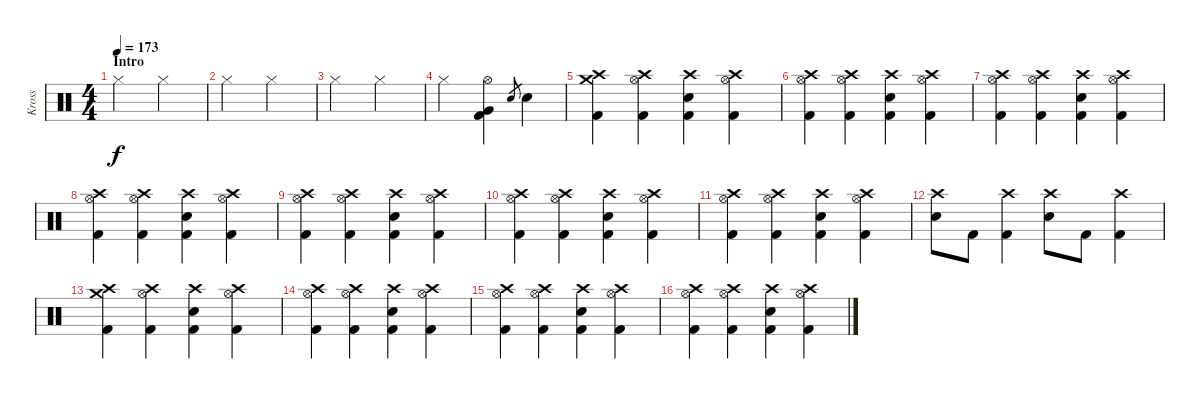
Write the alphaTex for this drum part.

\track ("Kross" "Kross") {instrument percussion}
\staff {score}
\articulation defaults
\ts (4 4)
\section ("" "Intro")
\tempo 173
\clef neutral
\ks c "Hi-Hat (closed)".2{dy f} "Hi-Hat (closed)".2
|
"Hi-Hat (closed)".2 "Hi-Hat (closed)".2 |
"Hi-Hat (closed)".2 "Hi-Hat (closed)".2 |
"Hi-Hat (closed)".2 ("Hi-Hat (open)" "Very Low Tom (hit)" "Kick (hit) 2").4 "Electric Snare (hit)".8{gr} "Electric Snare (hit)".4 |
("Crash medium (hit)" "Crash high (hit)" "Kick (hit) 2").4 ("Crash high (hit)" "Hi-Hat (open)" "Kick (hit) 2").4 ("Crash high (hit)" "Electric Snare (hit)" "Kick (hit) 2").4 ("Crash high (hit)" "Hi-Hat (open)" "Kick (hit) 2").4 |
("Crash high (hit)" "Hi-Hat (open)" "Kick (hit) 2").4 ("Crash high (hit)" "Hi-Hat (open)" "Kick (hit) 2").4 ("Crash high (hit)" "Electric Snare (hit)" "Kick (hit) 2").4 ("Crash high (hit)" "Hi-Hat (open)" "Kick (hit) 2").4 |
("Crash high (hit)" "Hi-Hat (open)" "Kick (hit) 2").4 ("Crash high (hit)" "Hi-Hat (open)" "Kick (hit) 2").4 ("Crash high (hit)" "Electric Snare (hit)" "Kick (hit) 2").4 ("Crash high (hit)" "Hi-Hat (open)" "Kick (hit) 2").4 |
("Crash high (hit)" "Hi-Hat (open)" "Kick (hit) 2").4 ("Crash high (hit)" "Hi-Hat (open)" "Kick (hit) 2").4 ("Crash high (hit)" "Electric Snare (hit)" "Kick (hit) 2").4 ("Crash high (hit)" "Hi-Hat (open)" "Kick (hit) 2").4 |
("Crash high (hit)" "Hi-Hat (open)" "Kick (hit) 2").4 ("Crash high (hit)" "Hi-Hat (open)" "Kick (hit) 2").4 ("Crash high (hit)" "Electric Snare (hit)" "Kick (hit) 2").4 ("Crash high (hit)" "Hi-Hat (open)" "Kick (hit) 2").4 |
("Crash high (hit)" "Hi-Hat (open)" "Kick (hit) 2").4 ("Crash high (hit)" "Hi-Hat (open)" "Kick (hit) 2").4 ("Crash high (hit)" "Electric Snare (hit)" "Kick (hit) 2").4 ("Crash high (hit)" "Hi-Hat (open)" "Kick (hit) 2").4 |
("Crash high (hit)" "Hi-Hat (open)" "Kick (hit) 2").4 ("Crash high (hit)" "Hi-Hat (open)" "Kick (hit) 2").4 ("Crash high (hit)" "Electric Snare (hit)" "Kick (hit) 2").4 ("Crash high (hit)" "Hi-Hat (open)" "Kick (hit) 2").4 |
("Crash high (hit)" "Electric Snare (hit)").8 "Kick (hit) 2".8 ("Crash high (hit)" "Kick (hit) 2").4 ("Crash high (hit)" "Electric Snare (hit)").8 "Kick (hit) 2".8 ("Crash high (hit)" "Kick (hit) 2").4 |
("Crash medium (hit)" "Crash high (hit)" "Kick (hit) 2").4 ("Crash high (hit)" "Hi-Hat (open)" "Kick (hit) 2").4 ("Crash high (hit)" "Electric Snare (hit)" "Kick (hit) 2").4 ("Crash high (hit)" "Hi-Hat (open)" "Kick (hit) 2").4 |
("Crash high (hit)" "Hi-Hat (open)" "Kick (hit) 2").4 ("Crash high (hit)" "Hi-Hat (open)" "Kick (hit) 2").4 ("Crash high (hit)" "Electric Snare (hit)" "Kick (hit) 2").4 ("Crash high (hit)" "Hi-Hat (open)" "Kick (hit) 2").4 |
("Crash high (hit)" "Hi-Hat (open)" "Kick (hit) 2").4 ("Crash high (hit)" "Hi-Hat (open)" "Kick (hit) 2").4 ("Crash high (hit)" "Electric Snare (hit)" "Kick (hit) 2").4 ("Crash high (hit)" "Hi-Hat (open)" "Kick (hit) 2").4 |
("Crash high (hit)" "Hi-Hat (open)" "Kick (hit) 2").4 ("Crash high (hit)" "Hi-Hat (open)" "Kick (hit) 2").4 ("Crash high (hit)" "Electric Snare (hit)" "Kick (hit) 2").4 ("Crash high (hit)" "Hi-Hat (open)" "Kick (hit) 2").4
